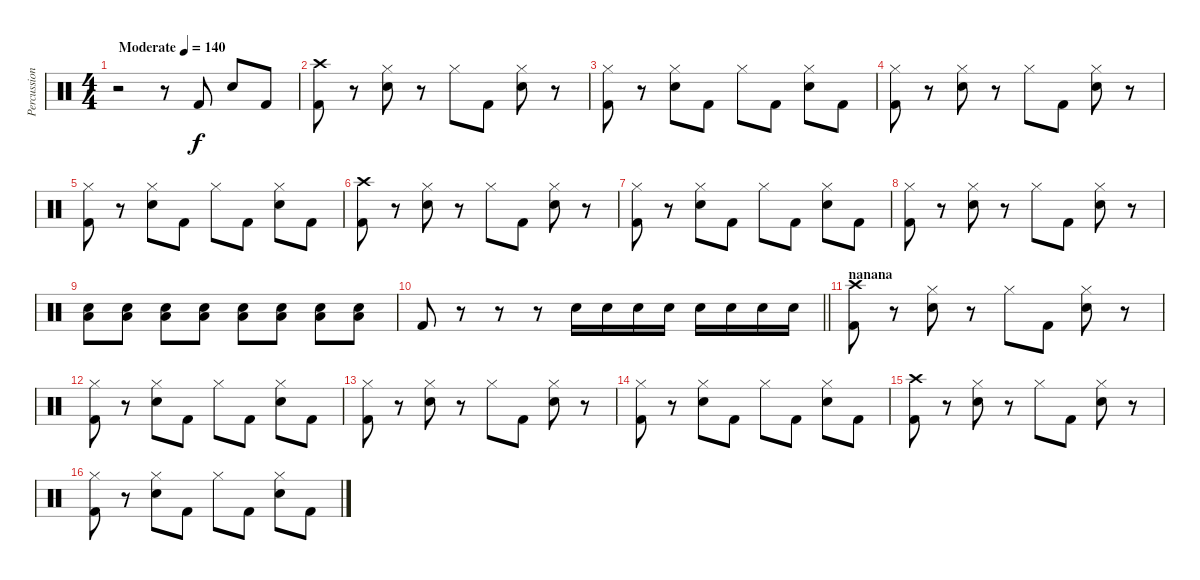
\track ("Percussion" "Percussion") {instrument percussion}
\staff {score}
\articulation defaults
\ts (4 4)
\tempo (140 "Moderate")
\clef neutral
\ks c
r.2{dy f} r.8 "Kick (hit) 2".8 "Snare (hit) 2".8 "Kick (hit) 2".8 |
("Crash high (hit)" "Kick (hit) 2").8 r.8 ("Hi-Hat (closed)" "Snare (hit) 2").8 r.8 "Hi-Hat (closed)".8 "Kick (hit) 2".8 ("Hi-Hat (closed)" "Snare (hit) 2").8 r.8 |
("Hi-Hat (closed)" "Kick (hit) 2").8 r.8 ("Hi-Hat (closed)" "Snare (hit) 2").8 "Kick (hit) 2".8 "Hi-Hat (closed)".8 "Kick (hit) 2".8 ("Hi-Hat (closed)" "Snare (hit) 2").8 "Kick (hit) 2".8 |
("Hi-Hat (closed)" "Kick (hit) 2").8 r.8 ("Hi-Hat (closed)" "Snare (hit) 2").8 r.8 "Hi-Hat (closed)".8 "Kick (hit) 2".8 ("Hi-Hat (closed)" "Snare (hit) 2").8 r.8 |
("Hi-Hat (closed)" "Kick (hit) 2").8 r.8 ("Hi-Hat (closed)" "Snare (hit) 2").8 "Kick (hit) 2".8 "Hi-Hat (closed)".8 "Kick (hit) 2".8 ("Hi-Hat (closed)" "Snare (hit) 2").8 "Kick (hit) 2".8 |
("Crash high (hit)" "Kick (hit) 2").8 r.8 ("Hi-Hat (closed)" "Snare (hit) 2").8 r.8 "Hi-Hat (closed)".8 "Kick (hit) 2".8 ("Hi-Hat (closed)" "Snare (hit) 2").8 r.8 |
("Hi-Hat (closed)" "Kick (hit) 2").8 r.8 ("Hi-Hat (closed)" "Snare (hit) 2").8 "Kick (hit) 2".8 "Hi-Hat (closed)".8 "Kick (hit) 2".8 ("Hi-Hat (closed)" "Snare (hit) 2").8 "Kick (hit) 2".8 |
("Hi-Hat (closed)" "Kick (hit) 2").8 r.8 ("Hi-Hat (closed)" "Snare (hit) 2").8 r.8 "Hi-Hat (closed)".8 "Kick (hit) 2".8 ("Hi-Hat (closed)" "Snare (hit) 2").8 r.8 |
("Low Floor Tom (hit)" "Snare (hit) 2").8 ("Low Floor Tom (hit)" "Snare (hit) 2").8 ("Low Floor Tom (hit)" "Snare (hit) 2").8 ("Low Floor Tom (hit)" "Snare (hit) 2").8 ("Low Floor Tom (hit)" "Snare (hit) 2").8 ("Low Floor Tom (hit)" "Snare (hit) 2").8 ("Low Floor Tom (hit)" "Snare (hit) 2").8 ("Low Floor Tom (hit)" "Snare (hit) 2").8 |
\barLineRight lightlight "Kick (hit) 2".8
r.8 r.8 r.8 "Snare (hit) 2".16 "Snare (hit) 2".16 "Snare (hit) 2".16 "Snare (hit) 2".16 "Snare (hit) 2".16 "Snare (hit) 2".16 "Snare (hit) 2".16 "Snare (hit) 2".16 |
\section ("" "nanana")
("Crash high (hit)" "Kick (hit) 2").8 r.8 ("Hi-Hat (closed)" "Snare (hit) 2").8 r.8 "Hi-Hat (closed)".8 "Kick (hit) 2".8 ("Hi-Hat (closed)" "Snare (hit) 2").8 r.8 |
("Hi-Hat (closed)" "Kick (hit) 2").8 r.8 ("Hi-Hat (closed)" "Snare (hit) 2").8 "Kick (hit) 2".8 "Hi-Hat (closed)".8 "Kick (hit) 2".8 ("Hi-Hat (closed)" "Snare (hit) 2").8 "Kick (hit) 2".8 |
("Hi-Hat (closed)" "Kick (hit) 2").8 r.8 ("Hi-Hat (closed)" "Snare (hit) 2").8 r.8 "Hi-Hat (closed)".8 "Kick (hit) 2".8 ("Hi-Hat (closed)" "Snare (hit) 2").8 r.8 |
("Hi-Hat (closed)" "Kick (hit) 2").8 r.8 ("Hi-Hat (closed)" "Snare (hit) 2").8 "Kick (hit) 2".8 "Hi-Hat (closed)".8 "Kick (hit) 2".8 ("Hi-Hat (closed)" "Snare (hit) 2").8 "Kick (hit) 2".8 |
("Crash high (hit)" "Kick (hit) 2").8 r.8 ("Hi-Hat (closed)" "Snare (hit) 2").8 r.8 "Hi-Hat (closed)".8 "Kick (hit) 2".8 ("Hi-Hat (closed)" "Snare (hit) 2").8 r.8 |
("Hi-Hat (closed)" "Kick (hit) 2").8 r.8 ("Hi-Hat (closed)" "Snare (hit) 2").8 "Kick (hit) 2".8 "Hi-Hat (closed)".8 "Kick (hit) 2".8 ("Hi-Hat (closed)" "Snare (hit) 2").8 "Kick (hit) 2".8
